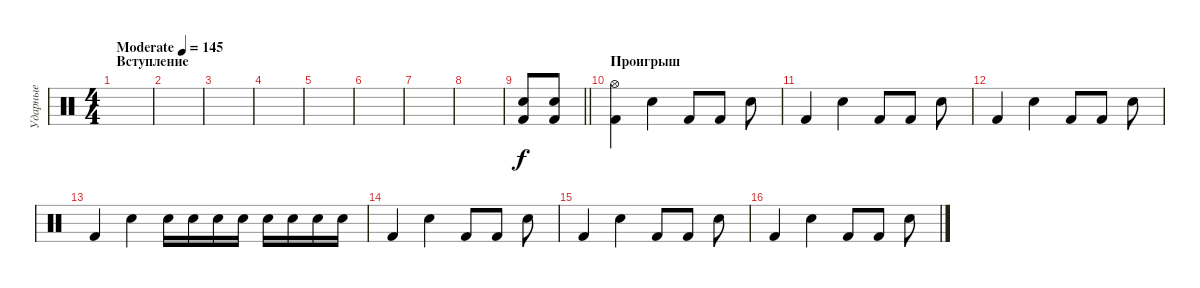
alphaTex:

\track ("Ударные" "Ударные") {instrument percussion}
\staff {score}
\articulation defaults
\ts (4 4)
\section ("" "Вступление")
\tempo (145 "Moderate")
\clef neutral
\ks c
|
|
|
|
|
|
|
|
\barLineRight lightlight
("Kick (hit) 2" "Snare (hit) 2").8 ("Kick (hit) 2" "Snare (hit) 2").8 |
\section ("" "Проигрыш")
("Hi-Hat (open)" "Kick (hit) 2").4 "Snare (hit) 2".4 "Kick (hit) 2".8 "Kick (hit) 2".8 "Snare (hit) 2".8 |
"Kick (hit) 2".4 "Snare (hit) 2".4 "Kick (hit) 2".8 "Kick (hit) 2".8 "Snare (hit) 2".8 |
"Kick (hit) 2".4 "Snare (hit) 2".4 "Kick (hit) 2".8 "Kick (hit) 2".8 "Snare (hit) 2".8 |
"Kick (hit) 2".4 "Snare (hit) 2".4 "Snare (hit) 2".16 "Snare (hit) 2".16 "Snare (hit) 2".16 "Snare (hit) 2".16 "Snare (hit) 2".16 "Snare (hit) 2".16 "Snare (hit) 2".16 "Snare (hit) 2".16 |
"Kick (hit) 2".4 "Snare (hit) 2".4 "Kick (hit) 2".8 "Kick (hit) 2".8 "Snare (hit) 2".8 |
"Kick (hit) 2".4 "Snare (hit) 2".4 "Kick (hit) 2".8 "Kick (hit) 2".8 "Snare (hit) 2".8 |
"Kick (hit) 2".4 "Snare (hit) 2".4 "Kick (hit) 2".8 "Kick (hit) 2".8 "Snare (hit) 2".8
